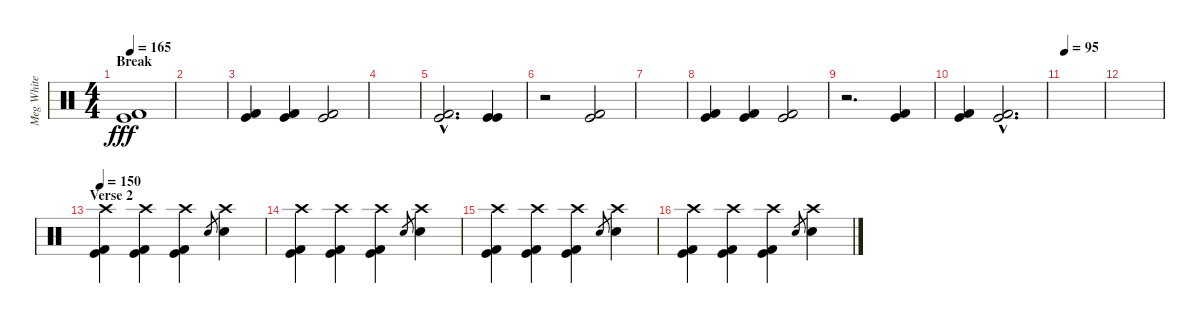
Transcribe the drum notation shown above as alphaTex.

\track ("Meg White (Drums)" "Meg White ") {instrument percussion}
\staff {score}
\articulation defaults
\ts (4 4)
\section ("" "Break")
\tempo 165
\clef neutral
\ks c
("Kick (hit) 2" "Kick (hit)").1{dy fff} |
|
("Kick (hit) 2" "Kick (hit)").4 ("Kick (hit) 2" "Kick (hit)").4 ("Kick (hit) 2" "Kick (hit)").2 |
|
("Kick (hit) 2"{hac} "Kick (hit)"{hac}).2{d} ("Kick (hit)" "Kick (hit)").4 |
r.2 ("Kick (hit) 2" "Kick (hit)").2 |
|
("Kick (hit) 2" "Kick (hit)").4 ("Kick (hit) 2" "Kick (hit)").4 ("Kick (hit) 2" "Kick (hit)").2 |
r.2{d} ("Kick (hit) 2" "Kick (hit)").4 |
("Kick (hit) 2" "Kick (hit)").4 ("Kick (hit) 2"{hac} "Kick (hit)"{hac}).2{d} |
\tempo 95
|
|
\section ("" "Verse 2")
\tempo 150
("Kick (hit) 2" "Kick (hit)" "Crash high (hit)").4 ("Kick (hit) 2" "Kick (hit)" "Crash high (hit)").4 ("Kick (hit) 2" "Kick (hit)" "Crash high (hit)").4 "Electric Snare (hit)".8{gr} ("Electric Snare (hit)" "Crash high (hit)").4 |
("Kick (hit) 2" "Kick (hit)" "Crash high (hit)").4 ("Kick (hit) 2" "Kick (hit)" "Crash high (hit)").4 ("Kick (hit) 2" "Kick (hit)" "Crash high (hit)").4 "Electric Snare (hit)".8{gr} ("Electric Snare (hit)" "Crash high (hit)").4 |
("Kick (hit) 2" "Kick (hit)" "Crash high (hit)").4 ("Kick (hit) 2" "Kick (hit)" "Crash high (hit)").4 ("Kick (hit) 2" "Kick (hit)" "Crash high (hit)").4 "Electric Snare (hit)".8{gr} ("Electric Snare (hit)" "Crash high (hit)").4 |
("Kick (hit) 2" "Kick (hit)" "Crash high (hit)").4 ("Kick (hit) 2" "Kick (hit)" "Crash high (hit)").4 ("Kick (hit) 2" "Kick (hit)" "Crash high (hit)").4 "Electric Snare (hit)".8{gr} ("Electric Snare (hit)" "Crash high (hit)").4
